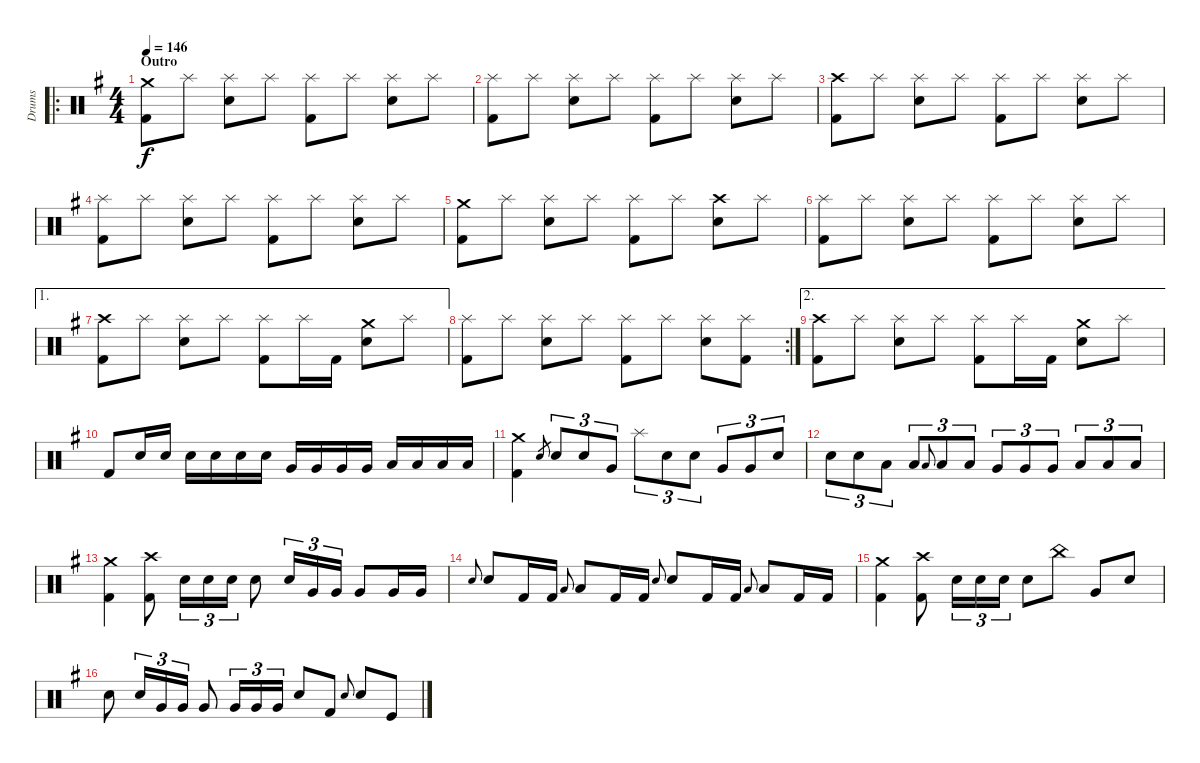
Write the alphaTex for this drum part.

\track ("Drums" "Drums") {instrument percussion}
\staff {score}
\articulation defaults
\ro
\ts (4 4)
\section ("" "Outro")
\tempo 146
\clef neutral
\ks eminor
("Crash medium (hit)" "Kick (hit) 2").8{dy f} "Splash (hit)".8 ("Splash (hit)" "Snare (hit) 2").8 "Splash (hit)".8 ("Splash (hit)" "Kick (hit) 2").8 "Splash (hit)".8 ("Splash (hit)" "Snare (hit) 2").8 "Splash (hit)".8 |
("Splash (hit)" "Kick (hit) 2").8 "Splash (hit)".8 ("Splash (hit)" "Snare (hit) 2").8 "Splash (hit)".8 ("Splash (hit)" "Kick (hit) 2").8 "Splash (hit)".8 ("Splash (hit)" "Snare (hit) 2").8 "Splash (hit)".8 |
("Crash high (hit)" "Kick (hit) 2").8 "Splash (hit)".8 ("Splash (hit)" "Snare (hit) 2").8 "Splash (hit)".8 ("Splash (hit)" "Kick (hit) 2").8 "Splash (hit)".8 ("Splash (hit)" "Snare (hit) 2").8 "Splash (hit)".8 |
("Splash (hit)" "Kick (hit) 2").8 "Splash (hit)".8 ("Splash (hit)" "Snare (hit) 2").8 "Splash (hit)".8 ("Splash (hit)" "Kick (hit) 2").8 "Splash (hit)".8 ("Splash (hit)" "Snare (hit) 2").8 "Splash (hit)".8 |
("Crash medium (hit)" "Kick (hit) 2").8 "Splash (hit)".8 ("Splash (hit)" "Snare (hit) 2").8 "Splash (hit)".8 ("Splash (hit)" "Kick (hit) 2").8 "Splash (hit)".8 ("Crash high (hit)" "Snare (hit) 2").8 "Splash (hit)".8 |
("Splash (hit)" "Kick (hit) 2").8 "Splash (hit)".8 ("Splash (hit)" "Snare (hit) 2").8 "Splash (hit)".8 ("Splash (hit)" "Kick (hit) 2").8 "Splash (hit)".8 ("Splash (hit)" "Snare (hit) 2").8 "Splash (hit)".8 |
\ae 1
("Crash high (hit)" "Kick (hit) 2").8 "Splash (hit)".8 ("Splash (hit)" "Snare (hit) 2").8 "Splash (hit)".8 ("Splash (hit)" "Kick (hit) 2").8 "Splash (hit)".16 "Kick (hit) 2".16 ("Crash medium (hit)" "Snare (hit) 2").8 "Splash (hit)".8 |
\rc 2
("Splash (hit)" "Kick (hit) 2").8 "Splash (hit)".8 ("Splash (hit)" "Snare (hit) 2").8 "Splash (hit)".8 ("Splash (hit)" "Kick (hit) 2").8 "Splash (hit)".8 ("Splash (hit)" "Snare (hit) 2").8 ("Splash (hit)" "Kick (hit) 2").8 |
\ae 2
("Crash high (hit)" "Kick (hit) 2").8 "Splash (hit)".8 ("Splash (hit)" "Snare (hit) 2").8 "Splash (hit)".8 ("Splash (hit)" "Kick (hit) 2").8 "Splash (hit)".16 "Kick (hit) 2".16 ("Crash medium (hit)" "Snare (hit) 2").8 "Splash (hit)".8 |
"Kick (hit) 2".8 "Electric Snare (hit)".16 "Electric Snare (hit)".16 "Electric Snare (hit)".16 "Electric Snare (hit)".16 "Electric Snare (hit)".16 "Electric Snare (hit)".16 "Very Low Tom (hit)".16 "Very Low Tom (hit)".16 "Very Low Tom (hit)".16 "Very Low Tom (hit)".16 "Low Floor Tom (hit)".16 "Low Floor Tom (hit)".16 "Low Floor Tom (hit)".16 "Low Floor Tom (hit)".16 |
("Crash medium (hit)" "Kick (hit) 2").4 "Electric Snare (hit)".8{gr} "Electric Snare (hit)".8{tu (3 2)} "Electric Snare (hit)".8{tu (3 2)} "Very Low Tom (hit)".8{tu (3 2)} "Splash (hit)".8{tu (3 2)} "Electric Snare (hit)".8{tu (3 2)} "Electric Snare (hit)".8{tu (3 2)} "Very Low Tom (hit)".8{tu (3 2)} "Very Low Tom (hit)".8{tu (3 2)} "Electric Snare (hit)".8{tu (3 2)} |
"Electric Snare (hit)".8{tu (3 2)} "Electric Snare (hit)".8{tu (3 2)} "Low Tom (hit)".8{tu (3 2)} "Low Tom (hit)".8{tu (3 2)} "Low Tom (hit)".8{gr onbeat} "Low Tom (hit)".8{tu (3 2)} "Low Tom (hit)".8{tu (3 2)} "Very Low Tom (hit)".8{tu (3 2)} "Very Low Tom (hit)".8{tu (3 2)} "Very Low Tom (hit)".8{tu (3 2)} "Low Floor Tom (hit)".8{tu (3 2)} "Low Floor Tom (hit)".8{tu (3 2)} "Low Floor Tom (hit)".8{tu (3 2)} |
("Crash medium (hit)" "Kick (hit) 2").4 ("Crash high (hit)" "Kick (hit) 2").8 "Electric Snare (hit)".16{tu (3 2)} "Electric Snare (hit)".16{tu (3 2)} "Electric Snare (hit)".16{tu (3 2)} "Electric Snare (hit)".8 "Electric Snare (hit)".16{tu (3 2)} "Very Low Tom (hit)".16{tu (3 2)} "Very Low Tom (hit)".16{tu (3 2)} "Very Low Tom (hit)".8 "Very Low Tom (hit)".16 "Very Low Tom (hit)".16 |
"Electric Snare (hit)".8{gr onbeat} "Electric Snare (hit)".8 "Kick (hit) 2".16 "Kick (hit) 2".16 "Low Floor Tom (hit)".8{gr onbeat} "Low Floor Tom (hit)".8 "Kick (hit) 2".16 "Kick (hit) 2".16 "Electric Snare (hit)".8{gr onbeat} "Electric Snare (hit)".8 "Kick (hit) 2".16 "Kick (hit) 2".16 "Low Floor Tom (hit)".8{gr onbeat} "Low Floor Tom (hit)".8 "Kick (hit) 2".16 "Kick (hit) 2".16 |
("Crash medium (hit)" "Kick (hit) 2").4 ("Crash high (hit)" "Kick (hit) 2").8 "Electric Snare (hit)".16{tu (3 2)} "Electric Snare (hit)".16{tu (3 2)} "Electric Snare (hit)".16{tu (3 2)} "Electric Snare (hit)".8 "China (hit)".8 "Very Low Tom (hit)".8 "Electric Snare (hit)".8 |
"Electric Snare (hit)".8 "Electric Snare (hit)".16{tu (3 2)} "Very Low Tom (hit)".16{tu (3 2)} "Very Low Tom (hit)".16{tu (3 2)} "Very Low Tom (hit)".8 "Very Low Tom (hit)".16{tu (3 2)} "Very Low Tom (hit)".16{tu (3 2)} "Very Low Tom (hit)".16{tu (3 2)} "Electric Snare (hit)".8 "Kick (hit) 2".8 "Electric Snare (hit)".8{gr onbeat} "Electric Snare (hit)".8 "Kick (hit)".8
